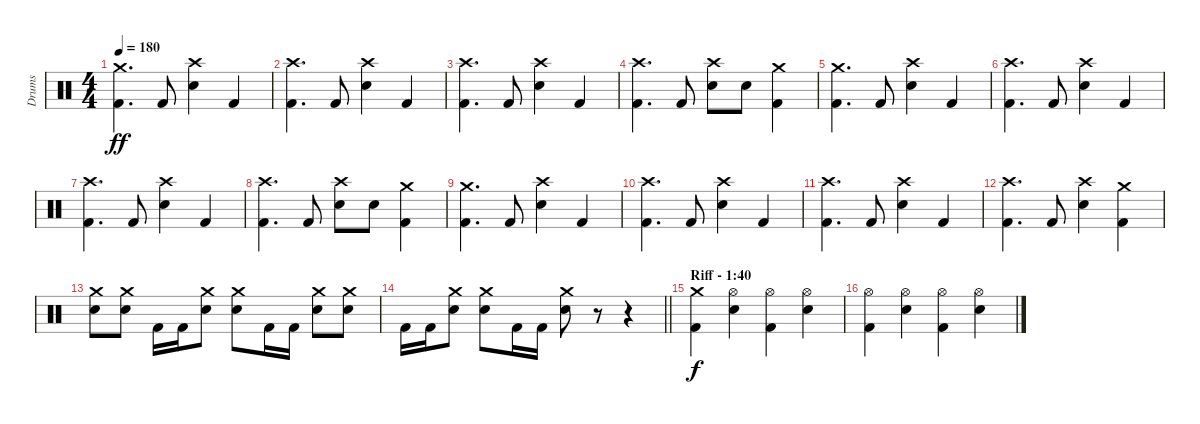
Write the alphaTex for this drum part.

\track ("Drums" "Drums") {instrument percussion}
\staff {score}
\articulation defaults
\ts (4 4)
\tempo 180
\clef neutral
\ks c
("Crash medium (hit)" "Kick (hit) 2").4{d dy ff} "Kick (hit) 2".8 ("Crash high (hit)" "Electric Snare (hit)").4 "Kick (hit) 2".4 |
("Crash high (hit)" "Kick (hit) 2").4{d} "Kick (hit) 2".8 ("Crash high (hit)" "Electric Snare (hit)").4 "Kick (hit) 2".4 |
("Crash high (hit)" "Kick (hit) 2").4{d} "Kick (hit) 2".8 ("Crash high (hit)" "Electric Snare (hit)").4 "Kick (hit) 2".4 |
("Crash high (hit)" "Kick (hit) 2").4{d} "Kick (hit) 2".8 ("Crash high (hit)" "Electric Snare (hit)").8 "Electric Snare (hit)".8 ("Crash medium (hit)" "Kick (hit) 2").4 |
("Crash medium (hit)" "Kick (hit) 2").4{d} "Kick (hit) 2".8 ("Crash high (hit)" "Electric Snare (hit)").4 "Kick (hit) 2".4 |
("Crash high (hit)" "Kick (hit) 2").4{d} "Kick (hit) 2".8 ("Crash high (hit)" "Electric Snare (hit)").4 "Kick (hit) 2".4 |
("Crash high (hit)" "Kick (hit) 2").4{d} "Kick (hit) 2".8 ("Crash high (hit)" "Electric Snare (hit)").4 "Kick (hit) 2".4 |
("Crash high (hit)" "Kick (hit) 2").4{d} "Kick (hit) 2".8 ("Crash high (hit)" "Electric Snare (hit)").8 "Electric Snare (hit)".8 ("Crash medium (hit)" "Kick (hit) 2").4 |
("Crash medium (hit)" "Kick (hit) 2").4{d} "Kick (hit) 2".8 ("Crash high (hit)" "Electric Snare (hit)").4 "Kick (hit) 2".4 |
("Crash high (hit)" "Kick (hit) 2").4{d} "Kick (hit) 2".8 ("Crash high (hit)" "Electric Snare (hit)").4 "Kick (hit) 2".4 |
("Crash high (hit)" "Kick (hit) 2").4{d} "Kick (hit) 2".8 ("Crash high (hit)" "Electric Snare (hit)").4 "Kick (hit) 2".4 |
("Crash high (hit)" "Kick (hit) 2").4{d} "Kick (hit) 2".8 ("Crash high (hit)" "Electric Snare (hit)").4 ("Crash medium (hit)" "Kick (hit) 2").4 |
("Crash medium (hit)" "Electric Snare (hit)").8 ("Crash medium (hit)" "Electric Snare (hit)").8 "Kick (hit) 2".16 "Kick (hit) 2".16 ("Crash medium (hit)" "Electric Snare (hit)").8 ("Crash medium (hit)" "Electric Snare (hit)").8 "Kick (hit) 2".16 "Kick (hit) 2".16 ("Crash medium (hit)" "Electric Snare (hit)").8 ("Crash medium (hit)" "Electric Snare (hit)").8 |
\barLineRight lightlight "Kick (hit) 2".16 "Kick (hit) 2".16
("Crash medium (hit)" "Electric Snare (hit)").8 ("Crash medium (hit)" "Electric Snare (hit)").8 "Kick (hit) 2".16 "Kick (hit) 2".16 ("Crash medium (hit)" "Electric Snare (hit)").8 r.8 r.4 |
\section ("" "Riff - 1:40")
("Crash medium (hit)" "Kick (hit) 2").4{dy f} ("Hi-Hat (open)" "Electric Snare (hit)").4 ("Hi-Hat (open)" "Kick (hit) 2").4 ("Hi-Hat (open)" "Electric Snare (hit)").4 |
("Hi-Hat (open)" "Kick (hit) 2").4 ("Hi-Hat (open)" "Electric Snare (hit)").4 ("Hi-Hat (open)" "Kick (hit) 2").4 ("Hi-Hat (open)" "Electric Snare (hit)").4
